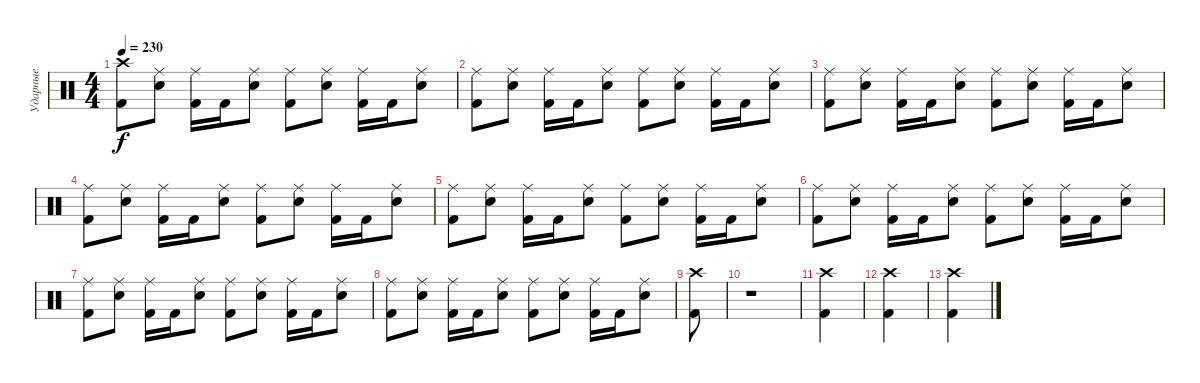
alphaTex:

\track ("Ударные" "Ударные") {instrument percussion}
\staff {score}
\articulation defaults
\ts (4 4)
\tempo 230
\clef neutral
\ks c
("Crash high (hit)" "Kick (hit) 2").8{dy f} ("Ride (middle)" "Electric Snare (hit)").8 ("Ride (middle)" "Kick (hit) 2").16 "Kick (hit) 2".16 ("Ride (middle)" "Electric Snare (hit)").8 ("Ride (middle)" "Kick (hit) 2").8 ("Ride (middle)" "Electric Snare (hit)").8 ("Ride (middle)" "Kick (hit) 2").16 "Kick (hit) 2".16 ("Ride (middle)" "Electric Snare (hit)").8 |
("Ride (middle)" "Kick (hit) 2").8 ("Ride (middle)" "Electric Snare (hit)").8 ("Ride (middle)" "Kick (hit) 2").16 "Kick (hit) 2".16 ("Ride (middle)" "Electric Snare (hit)").8 ("Ride (middle)" "Kick (hit) 2").8 ("Ride (middle)" "Electric Snare (hit)").8 ("Ride (middle)" "Kick (hit) 2").16 "Kick (hit) 2".16 ("Ride (middle)" "Electric Snare (hit)").8 |
("Ride (middle)" "Kick (hit) 2").8 ("Ride (middle)" "Electric Snare (hit)").8 ("Ride (middle)" "Kick (hit) 2").16 "Kick (hit) 2".16 ("Ride (middle)" "Electric Snare (hit)").8 ("Ride (middle)" "Kick (hit) 2").8 ("Ride (middle)" "Electric Snare (hit)").8 ("Ride (middle)" "Kick (hit) 2").16 "Kick (hit) 2".16 ("Ride (middle)" "Electric Snare (hit)").8 |
("Ride (middle)" "Kick (hit) 2").8 ("Ride (middle)" "Electric Snare (hit)").8 ("Ride (middle)" "Kick (hit) 2").16 "Kick (hit) 2".16 ("Ride (middle)" "Electric Snare (hit)").8 ("Ride (middle)" "Kick (hit) 2").8 ("Ride (middle)" "Electric Snare (hit)").8 ("Ride (middle)" "Kick (hit) 2").16 "Kick (hit) 2".16 ("Ride (middle)" "Electric Snare (hit)").8 |
("Ride (middle)" "Kick (hit) 2").8 ("Ride (middle)" "Electric Snare (hit)").8 ("Ride (middle)" "Kick (hit) 2").16 "Kick (hit) 2".16 ("Ride (middle)" "Electric Snare (hit)").8 ("Ride (middle)" "Kick (hit) 2").8 ("Ride (middle)" "Electric Snare (hit)").8 ("Ride (middle)" "Kick (hit) 2").16 "Kick (hit) 2".16 ("Ride (middle)" "Electric Snare (hit)").8 |
("Ride (middle)" "Kick (hit) 2").8 ("Ride (middle)" "Electric Snare (hit)").8 ("Ride (middle)" "Kick (hit) 2").16 "Kick (hit) 2".16 ("Ride (middle)" "Electric Snare (hit)").8 ("Ride (middle)" "Kick (hit) 2").8 ("Ride (middle)" "Electric Snare (hit)").8 ("Ride (middle)" "Kick (hit) 2").16 "Kick (hit) 2".16 ("Ride (middle)" "Electric Snare (hit)").8 |
("Ride (middle)" "Kick (hit) 2").8 ("Ride (middle)" "Electric Snare (hit)").8 ("Ride (middle)" "Kick (hit) 2").16 "Kick (hit) 2".16 ("Ride (middle)" "Electric Snare (hit)").8 ("Ride (middle)" "Kick (hit) 2").8 ("Ride (middle)" "Electric Snare (hit)").8 ("Ride (middle)" "Kick (hit) 2").16 "Kick (hit) 2".16 ("Ride (middle)" "Electric Snare (hit)").8 |
("Ride (middle)" "Kick (hit) 2").8 ("Ride (middle)" "Electric Snare (hit)").8 ("Ride (middle)" "Kick (hit) 2").16 "Kick (hit) 2".16 ("Ride (middle)" "Electric Snare (hit)").8 ("Ride (middle)" "Kick (hit) 2").8 ("Ride (middle)" "Electric Snare (hit)").8 ("Ride (middle)" "Kick (hit) 2").16 "Kick (hit) 2".16 ("Ride (middle)" "Electric Snare (hit)").8 |
("Crash high (hit)" "Kick (hit) 2").8 |
r.1 |
("Crash high (hit)" "Kick (hit) 2").4 |
("Crash high (hit)" "Kick (hit) 2").4 |
("Crash high (hit)" "Kick (hit) 2").4
